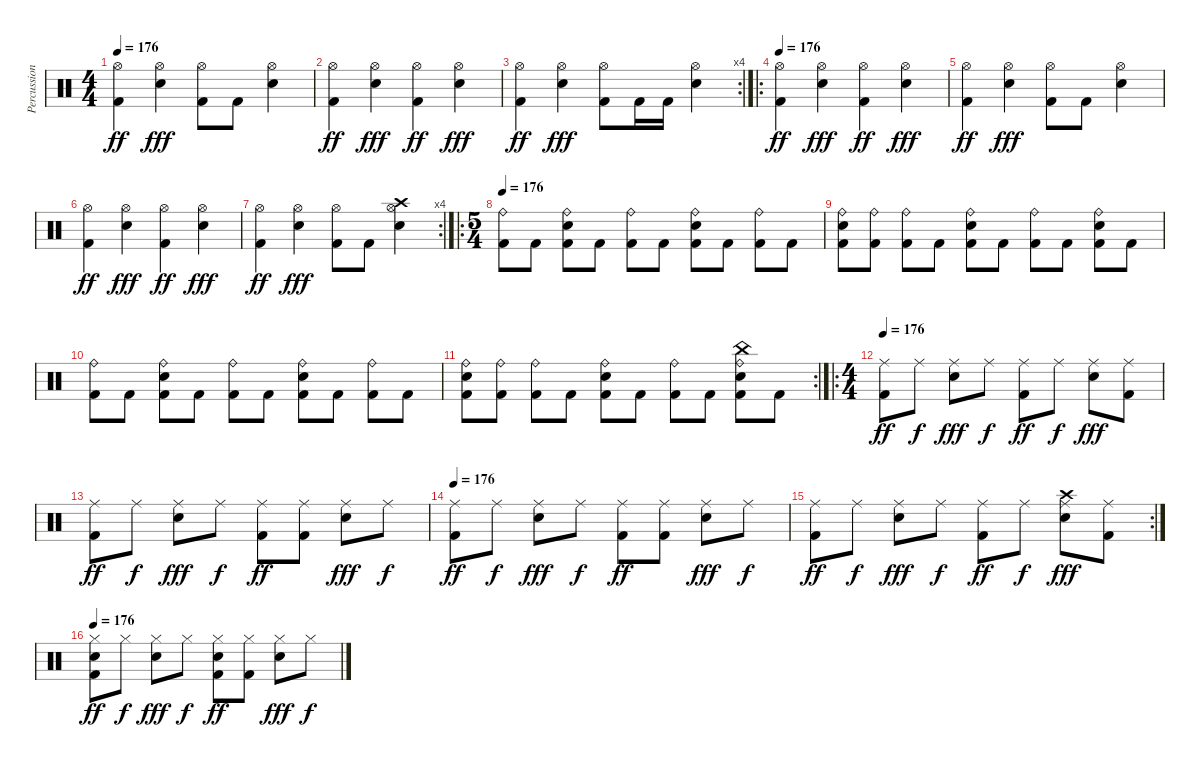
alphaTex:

\track ("Percussion" "Percussion") {instrument percussion}
\staff {score}
\articulation defaults
\ts (4 4)
\tempo 176
\clef neutral
\ks c
("Hi-Hat (open)" "Kick (hit) 2").4{dy ff} ("Hi-Hat (open)" "Snare (hit) 2").4{dy fff} ("Hi-Hat (open)" "Kick (hit) 2").8 "Kick (hit) 2".8 ("Hi-Hat (open)" "Snare (hit) 2").4 |
("Hi-Hat (open)" "Kick (hit) 2").4{dy ff} ("Hi-Hat (open)" "Snare (hit) 2").4{dy fff} ("Hi-Hat (open)" "Kick (hit) 2").4{dy ff} ("Hi-Hat (open)" "Snare (hit) 2").4{dy fff} |
\rc 4
("Hi-Hat (open)" "Kick (hit) 2").4{dy ff} ("Hi-Hat (open)" "Snare (hit) 2").4{dy fff} ("Hi-Hat (open)" "Kick (hit) 2").8 "Kick (hit) 2".16 "Kick (hit) 2".16 ("Hi-Hat (open)" "Snare (hit) 2").4 |
\ro
\tempo 176
("Hi-Hat (open)" "Kick (hit) 2").4{dy ff} ("Hi-Hat (open)" "Snare (hit) 2").4{dy fff} ("Hi-Hat (open)" "Kick (hit) 2").4{dy ff} ("Hi-Hat (open)" "Snare (hit) 2").4{dy fff} |
("Hi-Hat (open)" "Kick (hit) 2").4{dy ff} ("Hi-Hat (open)" "Snare (hit) 2").4{dy fff} ("Hi-Hat (open)" "Kick (hit) 2").8 "Kick (hit) 2".8 ("Hi-Hat (open)" "Snare (hit) 2").4 |
("Hi-Hat (open)" "Kick (hit) 2").4{dy ff} ("Hi-Hat (open)" "Snare (hit) 2").4{dy fff} ("Hi-Hat (open)" "Kick (hit) 2").4{dy ff} ("Hi-Hat (open)" "Snare (hit) 2").4{dy fff} |
\rc 4
("Hi-Hat (open)" "Kick (hit) 2").4{dy ff} ("Hi-Hat (open)" "Snare (hit) 2").4{dy fff} ("Hi-Hat (open)" "Kick (hit) 2").8 "Kick (hit) 2".8 ("Hi-Hat (open)" "Crash high (hit)" "Snare (hit) 2").4 |
\ro
\ts (5 4)
\tempo 176
("Ride (bell)" "Kick (hit) 2").8 "Kick (hit) 2".8 ("Ride (bell)" "Snare (hit) 2" "Kick (hit) 2").8 "Kick (hit) 2".8 ("Ride (bell)" "Kick (hit) 2").8 "Kick (hit) 2".8 ("Ride (bell)" "Snare (hit) 2" "Kick (hit) 2").8 "Kick (hit) 2".8 ("Ride (bell)" "Kick (hit) 2").8 "Kick (hit) 2".8 |
("Ride (bell)" "Snare (hit) 2" "Kick (hit) 2").8 ("Ride (bell)" "Kick (hit) 2").8 ("Ride (bell)" "Kick (hit) 2").8 "Kick (hit) 2".8 ("Ride (bell)" "Snare (hit) 2" "Kick (hit) 2").8 "Kick (hit) 2".8 ("Ride (bell)" "Kick (hit) 2").8 "Kick (hit) 2".8 ("Ride (bell)" "Snare (hit) 2" "Kick (hit) 2").8 "Kick (hit) 2".8 |
("Ride (bell)" "Kick (hit) 2").8 "Kick (hit) 2".8 ("Ride (bell)" "Snare (hit) 2" "Kick (hit) 2").8 "Kick (hit) 2".8 ("Ride (bell)" "Kick (hit) 2").8 "Kick (hit) 2".8 ("Ride (bell)" "Snare (hit) 2" "Kick (hit) 2").8 "Kick (hit) 2".8 ("Ride (bell)" "Kick (hit) 2").8 "Kick (hit) 2".8 |
\rc 2
("Ride (bell)" "Snare (hit) 2" "Kick (hit) 2").8 ("Ride (bell)" "Kick (hit) 2").8 ("Ride (bell)" "Kick (hit) 2").8 "Kick (hit) 2".8 ("Ride (bell)" "Snare (hit) 2" "Kick (hit) 2").8 "Kick (hit) 2".8 ("Ride (bell)" "Kick (hit) 2").8 "Kick (hit) 2".8 ("Ride (bell)" "China (hit)" "Snare (hit) 2" "Kick (hit) 2").8 "Kick (hit) 2".8 |
\ro
\ts (4 4)
\tempo 176
("Ride (middle)" "Kick (hit) 2").8{dy ff} "Ride (middle)".8{dy f} ("Ride (middle)" "Snare (hit) 2").8{dy fff} "Ride (middle)".8{dy f} ("Ride (middle)" "Kick (hit) 2").8{dy ff} "Ride (middle)".8{dy f} ("Ride (middle)" "Snare (hit) 2").8{dy fff} ("Ride (middle)" "Kick (hit) 2").8 |
("Ride (middle)" "Kick (hit) 2").8{dy ff} "Ride (middle)".8{dy f} ("Ride (middle)" "Snare (hit) 2").8{dy fff} "Ride (middle)".8{dy f} ("Ride (middle)" "Kick (hit) 2").8{dy ff} ("Ride (middle)" "Kick (hit) 2").8 ("Ride (middle)" "Snare (hit) 2").8{dy fff} "Ride (middle)".8{dy f} |
\tempo 176
("Ride (middle)" "Kick (hit) 2").8{dy ff} "Ride (middle)".8{dy f} ("Ride (middle)" "Snare (hit) 2").8{dy fff} "Ride (middle)".8{dy f} ("Ride (middle)" "Kick (hit) 2").8{dy ff} ("Ride (middle)" "Kick (hit) 2").8 ("Ride (middle)" "Snare (hit) 2").8{dy fff} "Ride (middle)".8{dy f} |
\rc 2
("Ride (middle)" "Kick (hit) 2").8{dy ff} "Ride (middle)".8{dy f} ("Ride (middle)" "Snare (hit) 2").8{dy fff} "Ride (middle)".8{dy f} ("Ride (middle)" "Kick (hit) 2").8{dy ff} "Ride (middle)".8{dy f} ("Ride (middle)" "Crash high (hit)" "Snare (hit) 2").8{dy fff} ("Ride (middle)" "Kick (hit) 2").8 |
\tempo 176
("Hi-Hat (closed)" "Snare (hit) 2" "Kick (hit) 2").8{dy ff} "Hi-Hat (closed)".8{dy f} ("Hi-Hat (closed)" "Snare (hit) 2").8{dy fff} "Hi-Hat (closed)".8{dy f} ("Hi-Hat (closed)" "Snare (hit) 2" "Kick (hit) 2").8{dy ff} ("Hi-Hat (closed)" "Kick (hit) 2").8 ("Hi-Hat (closed)" "Snare (hit) 2").8{dy fff} "Hi-Hat (closed)".8{dy f}
